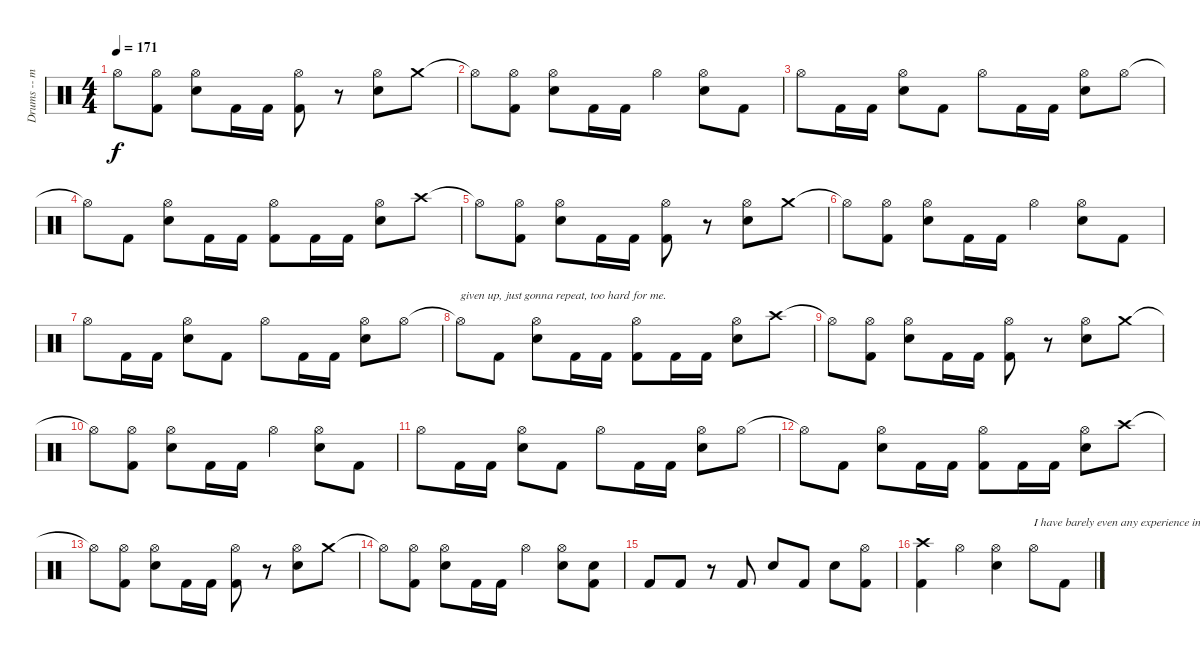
\track ("Drums -- mostly wrong" "Drums -- m") {instrument percussion}
\staff {score}
\articulation defaults
\ts (4 4)
\tempo 171
\clef neutral
\ks c "Hi-Hat (open)"{t}.8{dy f}
("Hi-Hat (open)" "Kick (hit) 2").8 ("Hi-Hat (open)" "Electric Snare (hit)").8 "Kick (hit) 2".16 "Kick (hit) 2".16 ("Hi-Hat (open)" "Kick (hit) 2").8 r.8 ("Hi-Hat (open)" "Electric Snare (hit)").8 "Crash medium (hit)".8 |
"Hi-Hat (open)"{t}.8 ("Hi-Hat (open)" "Kick (hit) 2").8 ("Hi-Hat (open)" "Electric Snare (hit)").8 "Kick (hit) 2".16 "Kick (hit) 2".16 "Hi-Hat (open)".4 ("Hi-Hat (open)" "Electric Snare (hit)").8 "Kick (hit) 2".8 |
"Hi-Hat (open)".8 "Kick (hit) 2".16 "Kick (hit) 2".16 ("Hi-Hat (open)" "Electric Snare (hit)").8 "Kick (hit) 2".8 "Hi-Hat (open)".8 "Kick (hit) 2".16 "Kick (hit) 2".16 ("Hi-Hat (open)" "Electric Snare (hit)").8 "Hi-Hat (open)".8 |
"Hi-Hat (open)"{t}.8 "Kick (hit) 2".8 ("Hi-Hat (open)" "Electric Snare (hit)").8 "Kick (hit) 2".16 "Kick (hit) 2".16 ("Hi-Hat (open)" "Kick (hit) 2").8 "Kick (hit) 2".16 "Kick (hit) 2".16 ("Hi-Hat (open)" "Electric Snare (hit)").8 "Crash high (hit)".8 |
"Hi-Hat (open)"{t}.8 ("Hi-Hat (open)" "Kick (hit) 2").8 ("Hi-Hat (open)" "Electric Snare (hit)").8 "Kick (hit) 2".16 "Kick (hit) 2".16 ("Hi-Hat (open)" "Kick (hit) 2").8 r.8 ("Hi-Hat (open)" "Electric Snare (hit)").8 "Crash medium (hit)".8 |
"Hi-Hat (open)"{t}.8 ("Hi-Hat (open)" "Kick (hit) 2").8 ("Hi-Hat (open)" "Electric Snare (hit)").8 "Kick (hit) 2".16 "Kick (hit) 2".16 "Hi-Hat (open)".4 ("Hi-Hat (open)" "Electric Snare (hit)").8 "Kick (hit) 2".8 |
"Hi-Hat (open)".8 "Kick (hit) 2".16 "Kick (hit) 2".16 ("Hi-Hat (open)" "Electric Snare (hit)").8 "Kick (hit) 2".8 "Hi-Hat (open)".8 "Kick (hit) 2".16 "Kick (hit) 2".16 ("Hi-Hat (open)" "Electric Snare (hit)").8 "Hi-Hat (open)".8 |
"Hi-Hat (open)"{t}.8{txt "given up, just gonna repeat, too hard for me."} "Kick (hit) 2".8 ("Hi-Hat (open)" "Electric Snare (hit)").8 "Kick (hit) 2".16 "Kick (hit) 2".16 ("Hi-Hat (open)" "Kick (hit) 2").8 "Kick (hit) 2".16 "Kick (hit) 2".16 ("Hi-Hat (open)" "Electric Snare (hit)").8 "Crash high (hit)".8 |
"Hi-Hat (open)"{t}.8 ("Hi-Hat (open)" "Kick (hit) 2").8 ("Hi-Hat (open)" "Electric Snare (hit)").8 "Kick (hit) 2".16 "Kick (hit) 2".16 ("Hi-Hat (open)" "Kick (hit) 2").8 r.8 ("Hi-Hat (open)" "Electric Snare (hit)").8 "Crash medium (hit)".8 |
"Hi-Hat (open)"{t}.8 ("Hi-Hat (open)" "Kick (hit) 2").8 ("Hi-Hat (open)" "Electric Snare (hit)").8 "Kick (hit) 2".16 "Kick (hit) 2".16 "Hi-Hat (open)".4 ("Hi-Hat (open)" "Electric Snare (hit)").8 "Kick (hit) 2".8 |
"Hi-Hat (open)".8 "Kick (hit) 2".16 "Kick (hit) 2".16 ("Hi-Hat (open)" "Electric Snare (hit)").8 "Kick (hit) 2".8 "Hi-Hat (open)".8 "Kick (hit) 2".16 "Kick (hit) 2".16 ("Hi-Hat (open)" "Electric Snare (hit)").8 "Hi-Hat (open)".8 |
"Hi-Hat (open)"{t}.8 "Kick (hit) 2".8 ("Hi-Hat (open)" "Electric Snare (hit)").8 "Kick (hit) 2".16 "Kick (hit) 2".16 ("Hi-Hat (open)" "Kick (hit) 2").8 "Kick (hit) 2".16 "Kick (hit) 2".16 ("Hi-Hat (open)" "Electric Snare (hit)").8 "Crash high (hit)".8 |
"Hi-Hat (open)"{t}.8 ("Hi-Hat (open)" "Kick (hit) 2").8 ("Hi-Hat (open)" "Electric Snare (hit)").8 "Kick (hit) 2".16 "Kick (hit) 2".16 ("Hi-Hat (open)" "Kick (hit) 2").8 r.8 ("Hi-Hat (open)" "Electric Snare (hit)").8 "Crash medium (hit)".8 |
"Hi-Hat (open)"{t}.8 ("Hi-Hat (open)" "Kick (hit) 2").8 ("Hi-Hat (open)" "Electric Snare (hit)").8 "Kick (hit) 2".16 "Kick (hit) 2".16 "Hi-Hat (open)".4 ("Hi-Hat (open)" "Electric Snare (hit)").8 ("Electric Snare (hit)" "Kick (hit) 2").8 |
"Kick (hit) 2".8 "Kick (hit) 2".8 r.8 "Kick (hit) 2".8 "Electric Snare (hit)".8 "Kick (hit) 2".8 "Electric Snare (hit)".8 ("Hi-Hat (open)" "Kick (hit) 2").8 |
("Crash high (hit)" "Kick (hit) 2").4 "Hi-Hat (open)".4 ("Hi-Hat (open)" "Electric Snare (hit)").4 "Hi-Hat (open)".8{txt "I have barely even any experience in drum arrangin"} "Kick (hit) 2".8
